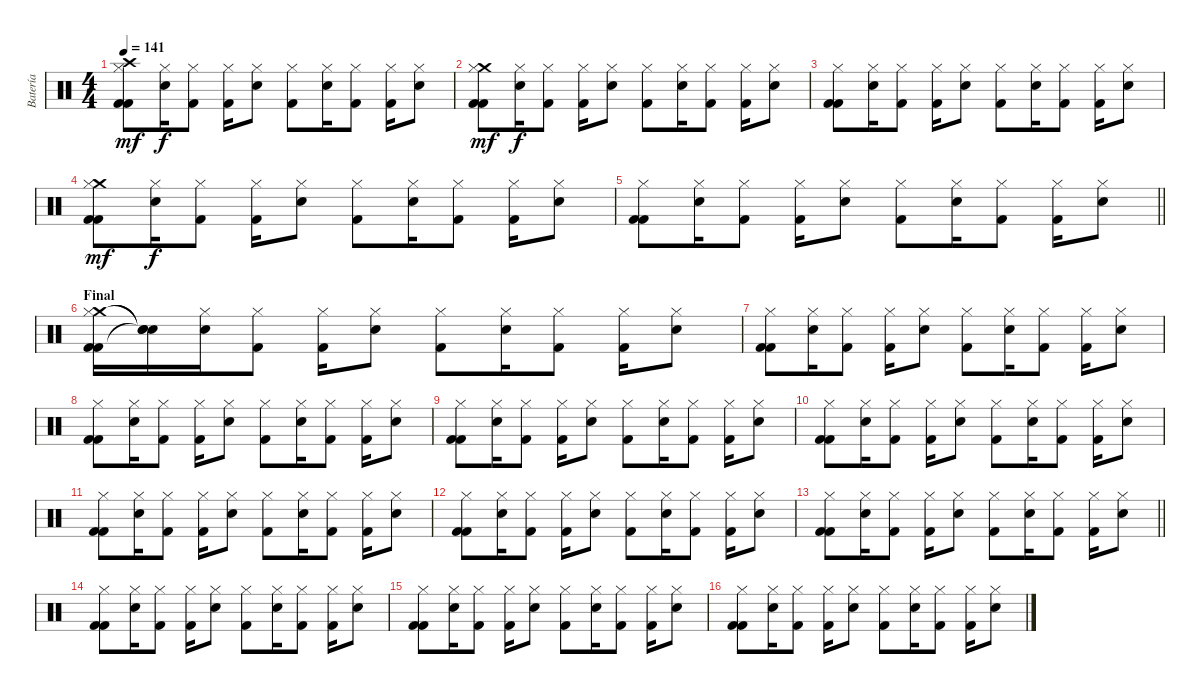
\track ("Batería" "Batería") {instrument percussion}
\staff {score}
\articulation defaults
\ts (4 4)
\tempo 141
\clef neutral
\ks c
("Crash high (hit)" "Hi-Hat (closed)" "Kick (hit) 2" "Kick (hit) 2").8{dy mf} ("Hi-Hat (closed)" "Electric Snare (hit)").16{dy f} ("Hi-Hat (closed)" "Kick (hit) 2").8 ("Hi-Hat (closed)" "Kick (hit) 2").16 ("Hi-Hat (closed)" "Electric Snare (hit)").8 ("Hi-Hat (closed)" "Kick (hit) 2").8 ("Hi-Hat (closed)" "Electric Snare (hit)").16 ("Hi-Hat (closed)" "Kick (hit) 2").8 ("Hi-Hat (closed)" "Kick (hit) 2").16 ("Hi-Hat (closed)" "Electric Snare (hit)").8 |
("Crash medium (hit)" "Hi-Hat (closed)" "Kick (hit) 2" "Kick (hit) 2").8{dy mf} ("Hi-Hat (closed)" "Electric Snare (hit)").16{dy f} ("Hi-Hat (closed)" "Kick (hit) 2").8 ("Hi-Hat (closed)" "Kick (hit) 2").16 ("Hi-Hat (closed)" "Electric Snare (hit)").8 ("Hi-Hat (closed)" "Kick (hit) 2").8 ("Hi-Hat (closed)" "Electric Snare (hit)").16 ("Hi-Hat (closed)" "Kick (hit) 2").8 ("Hi-Hat (closed)" "Kick (hit) 2").16 ("Hi-Hat (closed)" "Electric Snare (hit)").8 |
("Hi-Hat (closed)" "Kick (hit) 2" "Kick (hit) 2").8 ("Hi-Hat (closed)" "Electric Snare (hit)").16 ("Hi-Hat (closed)" "Kick (hit) 2").8 ("Hi-Hat (closed)" "Kick (hit) 2").16 ("Hi-Hat (closed)" "Electric Snare (hit)").8 ("Hi-Hat (closed)" "Kick (hit) 2").8 ("Hi-Hat (closed)" "Electric Snare (hit)").16 ("Hi-Hat (closed)" "Kick (hit) 2").8 ("Hi-Hat (closed)" "Kick (hit) 2").16 ("Hi-Hat (closed)" "Electric Snare (hit)").8 |
("Crash medium (hit)" "Hi-Hat (closed)" "Kick (hit) 2" "Kick (hit) 2").8{dy mf} ("Hi-Hat (closed)" "Electric Snare (hit)").16{dy f} ("Hi-Hat (closed)" "Kick (hit) 2").8 ("Hi-Hat (closed)" "Kick (hit) 2").16 ("Hi-Hat (closed)" "Electric Snare (hit)").8 ("Hi-Hat (closed)" "Kick (hit) 2").8 ("Hi-Hat (closed)" "Electric Snare (hit)").16 ("Hi-Hat (closed)" "Kick (hit) 2").8 ("Hi-Hat (closed)" "Kick (hit) 2").16 ("Hi-Hat (closed)" "Electric Snare (hit)").8 |
\barLineRight lightlight
("Hi-Hat (closed)" "Kick (hit) 2" "Kick (hit) 2").8 ("Hi-Hat (closed)" "Electric Snare (hit)").16 ("Hi-Hat (closed)" "Kick (hit) 2").8 ("Hi-Hat (closed)" "Kick (hit) 2").16 ("Hi-Hat (closed)" "Electric Snare (hit)").8 ("Hi-Hat (closed)" "Kick (hit) 2").8 ("Hi-Hat (closed)" "Electric Snare (hit)").16 ("Hi-Hat (closed)" "Kick (hit) 2").8 ("Hi-Hat (closed)" "Kick (hit) 2").16 ("Hi-Hat (closed)" "Electric Snare (hit)").8 |
\section ("" "Final")
("Crash medium (hit)" "Hi-Hat (closed)" "Kick (hit) 2" "Kick (hit) 2").16 ("Snare (hit)"{t} "Snare (hit)"{t} "Snare (hit)"{t}).16 ("Hi-Hat (closed)" "Electric Snare (hit)").16 ("Hi-Hat (closed)" "Kick (hit) 2").8 ("Hi-Hat (closed)" "Kick (hit) 2").16 ("Hi-Hat (closed)" "Electric Snare (hit)").8 ("Hi-Hat (closed)" "Kick (hit) 2").8 ("Hi-Hat (closed)" "Electric Snare (hit)").16 ("Hi-Hat (closed)" "Kick (hit) 2").8 ("Hi-Hat (closed)" "Kick (hit) 2").16 ("Hi-Hat (closed)" "Electric Snare (hit)").8 |
("Hi-Hat (closed)" "Kick (hit) 2" "Kick (hit) 2").8 ("Hi-Hat (closed)" "Electric Snare (hit)").16 ("Hi-Hat (closed)" "Kick (hit) 2").8 ("Hi-Hat (closed)" "Kick (hit) 2").16 ("Hi-Hat (closed)" "Electric Snare (hit)").8 ("Hi-Hat (closed)" "Kick (hit) 2").8 ("Hi-Hat (closed)" "Electric Snare (hit)").16 ("Hi-Hat (closed)" "Kick (hit) 2").8 ("Hi-Hat (closed)" "Kick (hit) 2").16 ("Hi-Hat (closed)" "Electric Snare (hit)").8 |
("Hi-Hat (closed)" "Kick (hit) 2" "Kick (hit) 2").8 ("Hi-Hat (closed)" "Electric Snare (hit)").16 ("Hi-Hat (closed)" "Kick (hit) 2").8 ("Hi-Hat (closed)" "Kick (hit) 2").16 ("Hi-Hat (closed)" "Electric Snare (hit)").8 ("Hi-Hat (closed)" "Kick (hit) 2").8 ("Hi-Hat (closed)" "Electric Snare (hit)").16 ("Hi-Hat (closed)" "Kick (hit) 2").8 ("Hi-Hat (closed)" "Kick (hit) 2").16 ("Hi-Hat (closed)" "Electric Snare (hit)").8 |
("Hi-Hat (closed)" "Kick (hit) 2" "Kick (hit) 2").8 ("Hi-Hat (closed)" "Electric Snare (hit)").16 ("Hi-Hat (closed)" "Kick (hit) 2").8 ("Hi-Hat (closed)" "Kick (hit) 2").16 ("Hi-Hat (closed)" "Electric Snare (hit)").8 ("Hi-Hat (closed)" "Kick (hit) 2").8 ("Hi-Hat (closed)" "Electric Snare (hit)").16 ("Hi-Hat (closed)" "Kick (hit) 2").8 ("Hi-Hat (closed)" "Kick (hit) 2").16 ("Hi-Hat (closed)" "Electric Snare (hit)").8 |
("Hi-Hat (closed)" "Kick (hit) 2" "Kick (hit) 2").8 ("Hi-Hat (closed)" "Electric Snare (hit)").16 ("Hi-Hat (closed)" "Kick (hit) 2").8 ("Hi-Hat (closed)" "Kick (hit) 2").16 ("Hi-Hat (closed)" "Electric Snare (hit)").8 ("Hi-Hat (closed)" "Kick (hit) 2").8 ("Hi-Hat (closed)" "Electric Snare (hit)").16 ("Hi-Hat (closed)" "Kick (hit) 2").8 ("Hi-Hat (closed)" "Kick (hit) 2").16 ("Hi-Hat (closed)" "Electric Snare (hit)").8 |
("Hi-Hat (closed)" "Kick (hit) 2" "Kick (hit) 2").8 ("Hi-Hat (closed)" "Electric Snare (hit)").16 ("Hi-Hat (closed)" "Kick (hit) 2").8 ("Hi-Hat (closed)" "Kick (hit) 2").16 ("Hi-Hat (closed)" "Electric Snare (hit)").8 ("Hi-Hat (closed)" "Kick (hit) 2").8 ("Hi-Hat (closed)" "Electric Snare (hit)").16 ("Hi-Hat (closed)" "Kick (hit) 2").8 ("Hi-Hat (closed)" "Kick (hit) 2").16 ("Hi-Hat (closed)" "Electric Snare (hit)").8 |
("Hi-Hat (closed)" "Kick (hit) 2" "Kick (hit) 2").8 ("Hi-Hat (closed)" "Electric Snare (hit)").16 ("Hi-Hat (closed)" "Kick (hit) 2").8 ("Hi-Hat (closed)" "Kick (hit) 2").16 ("Hi-Hat (closed)" "Electric Snare (hit)").8 ("Hi-Hat (closed)" "Kick (hit) 2").8 ("Hi-Hat (closed)" "Electric Snare (hit)").16 ("Hi-Hat (closed)" "Kick (hit) 2").8 ("Hi-Hat (closed)" "Kick (hit) 2").16 ("Hi-Hat (closed)" "Electric Snare (hit)").8 |
\barLineRight lightlight
("Hi-Hat (closed)" "Kick (hit) 2" "Kick (hit) 2").8 ("Hi-Hat (closed)" "Electric Snare (hit)").16 ("Hi-Hat (closed)" "Kick (hit) 2").8 ("Hi-Hat (closed)" "Kick (hit) 2").16 ("Hi-Hat (closed)" "Electric Snare (hit)").8 ("Hi-Hat (closed)" "Kick (hit) 2").8 ("Hi-Hat (closed)" "Electric Snare (hit)").16 ("Hi-Hat (closed)" "Kick (hit) 2").8 ("Hi-Hat (closed)" "Kick (hit) 2").16 ("Hi-Hat (closed)" "Electric Snare (hit)").8 |
\section ("" "")
("Hi-Hat (closed)" "Kick (hit) 2" "Kick (hit) 2").8 ("Hi-Hat (closed)" "Electric Snare (hit)").16 ("Hi-Hat (closed)" "Kick (hit) 2").8 ("Hi-Hat (closed)" "Kick (hit) 2").16 ("Hi-Hat (closed)" "Electric Snare (hit)").8 ("Hi-Hat (closed)" "Kick (hit) 2").8 ("Hi-Hat (closed)" "Electric Snare (hit)").16 ("Hi-Hat (closed)" "Kick (hit) 2").8 ("Hi-Hat (closed)" "Kick (hit) 2").16 ("Hi-Hat (closed)" "Electric Snare (hit)").8 |
("Hi-Hat (closed)" "Kick (hit) 2" "Kick (hit) 2").8 ("Hi-Hat (closed)" "Electric Snare (hit)").16 ("Hi-Hat (closed)" "Kick (hit) 2").8 ("Hi-Hat (closed)" "Kick (hit) 2").16 ("Hi-Hat (closed)" "Electric Snare (hit)").8 ("Hi-Hat (closed)" "Kick (hit) 2").8 ("Hi-Hat (closed)" "Electric Snare (hit)").16 ("Hi-Hat (closed)" "Kick (hit) 2").8 ("Hi-Hat (closed)" "Kick (hit) 2").16 ("Hi-Hat (closed)" "Electric Snare (hit)").8 |
("Hi-Hat (closed)" "Kick (hit) 2" "Kick (hit) 2").8 ("Hi-Hat (closed)" "Electric Snare (hit)").16 ("Hi-Hat (closed)" "Kick (hit) 2").8 ("Hi-Hat (closed)" "Kick (hit) 2").16 ("Hi-Hat (closed)" "Electric Snare (hit)").8 ("Hi-Hat (closed)" "Kick (hit) 2").8 ("Hi-Hat (closed)" "Electric Snare (hit)").16 ("Hi-Hat (closed)" "Kick (hit) 2").8 ("Hi-Hat (closed)" "Kick (hit) 2").16 ("Hi-Hat (closed)" "Electric Snare (hit)").8
